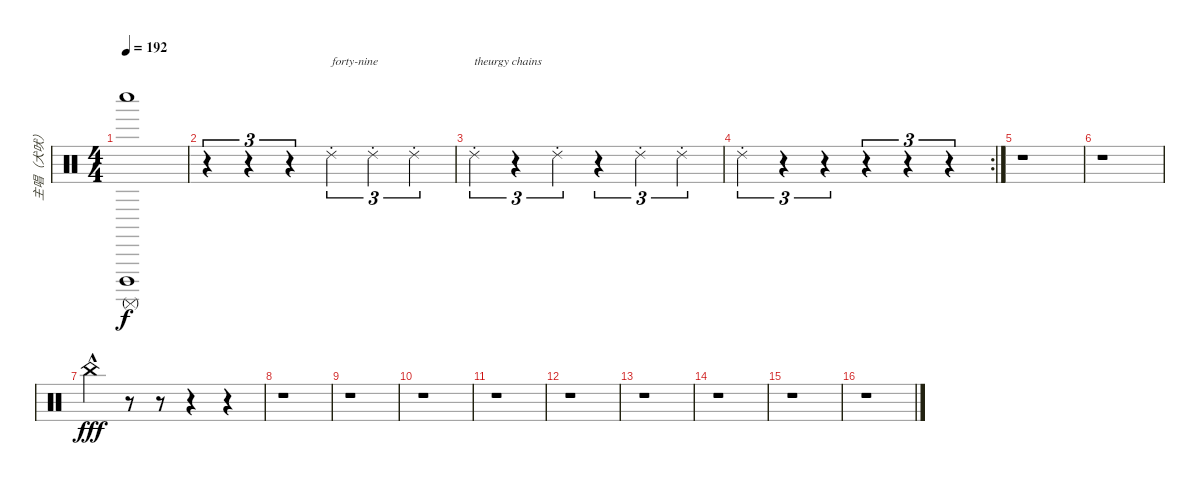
\track ("主唱（犬吠）" "主唱（犬吠）") {instrument percussion}
\staff {score}
\articulation defaults
\ts (4 4)
\tempo 192
\clef neutral
\ks c
("Surdo (mute)" "Whistle low (hit)" "Cuica (open)").1{dy f} |
r.4{tu (3 2)} r.4{tu (3 2)} r.4{tu (3 2)} "Ride (choke) 2".4{tu (3 2) txt "forty-nine"} "Ride (choke) 2".4{tu (3 2)} "Ride (choke) 2".4{tu (3 2)} |
"Ride (choke) 2".4{tu (3 2) txt "theurgy chains"} r.4{tu (3 2)} "Ride (choke) 2".4{tu (3 2)} r.4{tu (3 2)} "Ride (choke) 2".4{tu (3 2)} "Ride (choke) 2".4{tu (3 2)} |
\rc 2 "Ride (choke) 2".4{tu (3 2)}
r.4{tu (3 2)} r.4{tu (3 2)} r.4{tu (3 2)} r.4{tu (3 2)} r.4{tu (3 2)} |
r.1 |
r.1 |
"China (hit)"{hac}.4{dy fff} r.8 r.8 r.4 r.4 |
r.1 |
r.1 |
r.1 |
r.1 |
r.1 |
r.1 |
r.1 |
r.1 |
r.1
